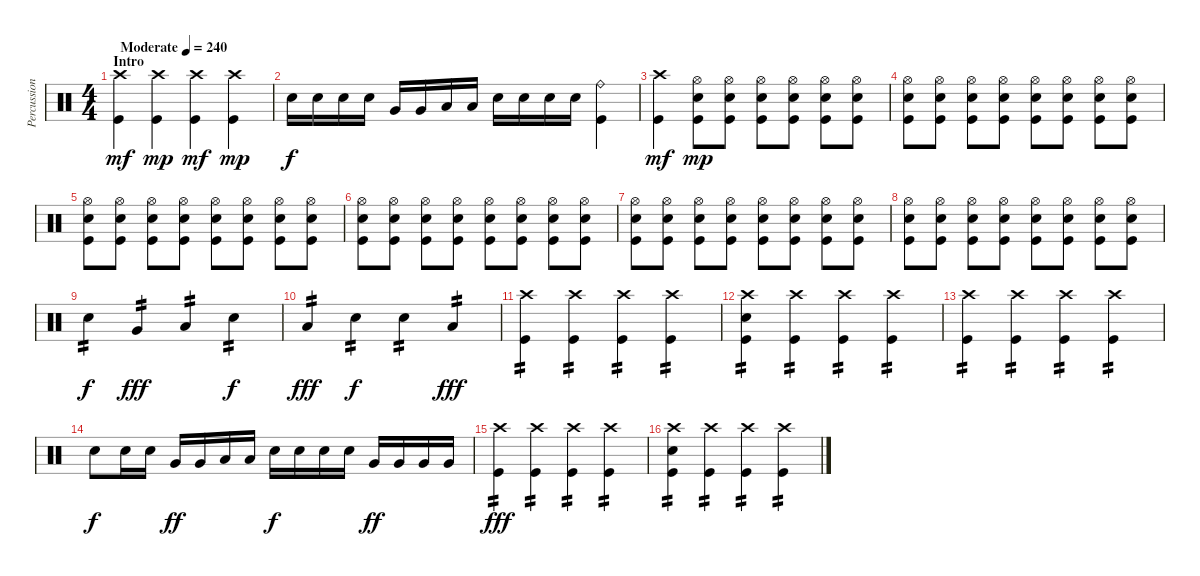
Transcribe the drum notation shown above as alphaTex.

\track ("Percussion" "Percussion") {instrument percussion}
\staff {score}
\articulation defaults
\ts (4 4)
\section ("" "Intro")
\tempo (240 "Moderate")
\clef neutral
\ks c
("Crash high (hit)" "Kick (hit)").4{dy mf} ("Crash high (hit)" "Kick (hit)").4{dy mp} ("Crash high (hit)" "Kick (hit)").4{dy mf} ("Crash high (hit)" "Kick (hit)").4{dy mp} |
"Electric Snare (hit)".16{dy f} "Electric Snare (hit)".16 "Electric Snare (hit)".16 "Electric Snare (hit)".16 "Very Low Tom (hit)".16 "Very Low Tom (hit)".16 "Low Floor Tom (hit)".16 "Low Floor Tom (hit)".16 "Electric Snare (hit)".16 "Electric Snare (hit)".16 "Electric Snare (hit)".16 "Electric Snare (hit)".16 ("Ride (bell)" "Kick (hit)").4 |
("Crash high (hit)" "Kick (hit)").4{dy mf} ("Hi-Hat (open)" "Electric Snare (hit)" "Kick (hit)").8{dy mp} ("Hi-Hat (open)" "Electric Snare (hit)" "Kick (hit)").8 ("Hi-Hat (open)" "Electric Snare (hit)" "Kick (hit)").8 ("Hi-Hat (open)" "Electric Snare (hit)" "Kick (hit)").8 ("Hi-Hat (open)" "Electric Snare (hit)" "Kick (hit)").8 ("Hi-Hat (open)" "Electric Snare (hit)" "Kick (hit)").8 |
("Hi-Hat (open)" "Electric Snare (hit)" "Kick (hit)").8 ("Hi-Hat (open)" "Electric Snare (hit)" "Kick (hit)").8 ("Hi-Hat (open)" "Electric Snare (hit)" "Kick (hit)").8 ("Hi-Hat (open)" "Electric Snare (hit)" "Kick (hit)").8 ("Hi-Hat (open)" "Electric Snare (hit)" "Kick (hit)").8 ("Hi-Hat (open)" "Electric Snare (hit)" "Kick (hit)").8 ("Hi-Hat (open)" "Electric Snare (hit)" "Kick (hit)").8 ("Hi-Hat (open)" "Electric Snare (hit)" "Kick (hit)").8 |
("Hi-Hat (open)" "Electric Snare (hit)" "Kick (hit)").8 ("Hi-Hat (open)" "Electric Snare (hit)" "Kick (hit)").8 ("Hi-Hat (open)" "Electric Snare (hit)" "Kick (hit)").8 ("Hi-Hat (open)" "Electric Snare (hit)" "Kick (hit)").8 ("Hi-Hat (open)" "Electric Snare (hit)" "Kick (hit)").8 ("Hi-Hat (open)" "Electric Snare (hit)" "Kick (hit)").8 ("Hi-Hat (open)" "Electric Snare (hit)" "Kick (hit)").8 ("Hi-Hat (open)" "Electric Snare (hit)" "Kick (hit)").8 |
("Hi-Hat (open)" "Electric Snare (hit)" "Kick (hit)").8 ("Hi-Hat (open)" "Electric Snare (hit)" "Kick (hit)").8 ("Hi-Hat (open)" "Electric Snare (hit)" "Kick (hit)").8 ("Hi-Hat (open)" "Electric Snare (hit)" "Kick (hit)").8 ("Hi-Hat (open)" "Electric Snare (hit)" "Kick (hit)").8 ("Hi-Hat (open)" "Electric Snare (hit)" "Kick (hit)").8 ("Hi-Hat (open)" "Electric Snare (hit)" "Kick (hit)").8 ("Hi-Hat (open)" "Electric Snare (hit)" "Kick (hit)").8 |
("Hi-Hat (open)" "Electric Snare (hit)" "Kick (hit)").8 ("Hi-Hat (open)" "Electric Snare (hit)" "Kick (hit)").8 ("Hi-Hat (open)" "Electric Snare (hit)" "Kick (hit)").8 ("Hi-Hat (open)" "Electric Snare (hit)" "Kick (hit)").8 ("Hi-Hat (open)" "Electric Snare (hit)" "Kick (hit)").8 ("Hi-Hat (open)" "Electric Snare (hit)" "Kick (hit)").8 ("Hi-Hat (open)" "Electric Snare (hit)" "Kick (hit)").8 ("Hi-Hat (open)" "Electric Snare (hit)" "Kick (hit)").8 |
("Hi-Hat (open)" "Electric Snare (hit)" "Kick (hit)").8 ("Hi-Hat (open)" "Electric Snare (hit)" "Kick (hit)").8 ("Hi-Hat (open)" "Electric Snare (hit)" "Kick (hit)").8 ("Hi-Hat (open)" "Electric Snare (hit)" "Kick (hit)").8 ("Hi-Hat (open)" "Electric Snare (hit)" "Kick (hit)").8 ("Hi-Hat (open)" "Electric Snare (hit)" "Kick (hit)").8 ("Hi-Hat (open)" "Electric Snare (hit)" "Kick (hit)").8 ("Hi-Hat (open)" "Electric Snare (hit)" "Kick (hit)").8 |
"Electric Snare (hit)".4{tp 2 dy f} "Very Low Tom (hit)".4{tp 2 dy fff} "Low Floor Tom (hit)".4{tp 2} "Electric Snare (hit)".4{tp 2 dy f} |
"Low Floor Tom (hit)".4{tp 2 dy fff} "Electric Snare (hit)".4{tp 2 dy f} "Electric Snare (hit)".4{tp 2} "Low Floor Tom (hit)".4{tp 2 dy fff} |
("Crash high (hit)" "Kick (hit)").4{tp 2} ("Crash high (hit)" "Kick (hit)").4{tp 2} ("Crash high (hit)" "Kick (hit)").4{tp 2} ("Crash high (hit)" "Kick (hit)").4{tp 2} |
("Crash high (hit)" "Electric Snare (hit)" "Kick (hit)").4{tp 2} ("Crash high (hit)" "Kick (hit)").4{tp 2} ("Crash high (hit)" "Kick (hit)").4{tp 2} ("Crash high (hit)" "Kick (hit)").4{tp 2} |
("Crash high (hit)" "Kick (hit)").4{tp 2} ("Crash high (hit)" "Kick (hit)").4{tp 2} ("Crash high (hit)" "Kick (hit)").4{tp 2} ("Crash high (hit)" "Kick (hit)").4{tp 2} |
"Electric Snare (hit)".8{dy f} "Electric Snare (hit)".16 "Electric Snare (hit)".16 "Very Low Tom (hit)".16{dy ff} "Very Low Tom (hit)".16 "Low Floor Tom (hit)".16 "Low Floor Tom (hit)".16 "Electric Snare (hit)".16{dy f} "Electric Snare (hit)".16 "Electric Snare (hit)".16 "Electric Snare (hit)".16 "Very Low Tom (hit)".16{dy ff} "Very Low Tom (hit)".16 "Very Low Tom (hit)".16 "Very Low Tom (hit)".16 |
("Crash high (hit)" "Kick (hit)").4{tp 2 dy fff} ("Crash high (hit)" "Kick (hit)").4{tp 2} ("Crash high (hit)" "Kick (hit)").4{tp 2} ("Crash high (hit)" "Kick (hit)").4{tp 2} |
("Crash high (hit)" "Electric Snare (hit)" "Kick (hit)").4{tp 2} ("Crash high (hit)" "Kick (hit)").4{tp 2} ("Crash high (hit)" "Kick (hit)").4{tp 2} ("Crash high (hit)" "Kick (hit)").4{tp 2}
